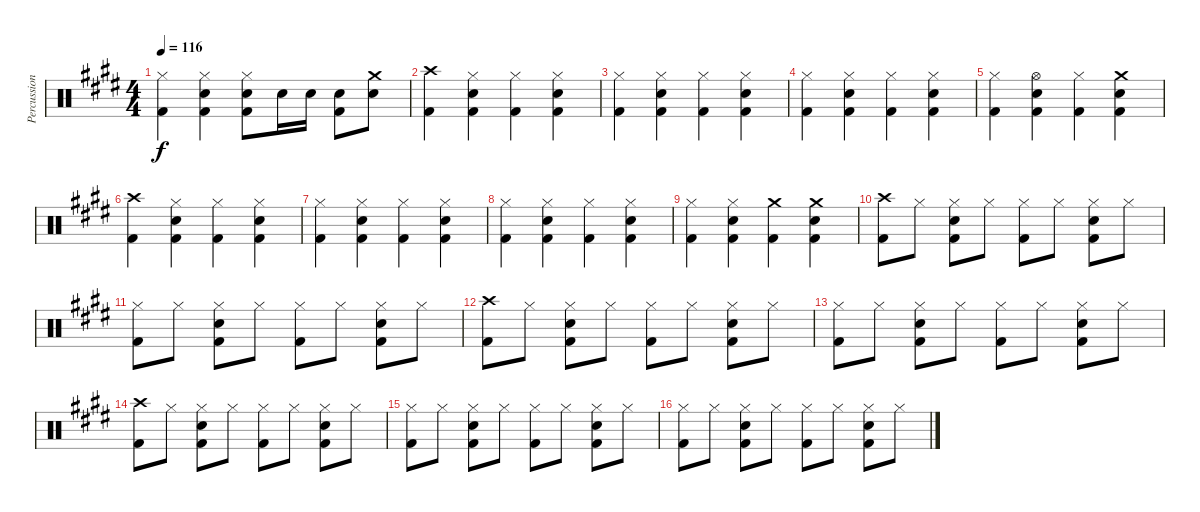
\track ("Percussion" "Percussion") {instrument percussion}
\staff {score}
\articulation defaults
\ts (4 4)
\tempo 116
\clef neutral
\ks e
("Hi-Hat (closed)" "Kick (hit) 2").4{dy f} ("Hi-Hat (closed)" "Snare (hit) 2" "Kick (hit) 2").4 ("Hi-Hat (closed)" "Snare (hit) 2" "Kick (hit) 2").8 "Snare (hit) 2".16 "Snare (hit) 2".16 ("Snare (hit) 2" "Kick (hit) 2").8 ("Crash medium (hit)" "Snare (hit) 2").8 |
("Crash high (hit)" "Kick (hit) 2").4 ("Hi-Hat (closed)" "Snare (hit) 2" "Kick (hit) 2").4 ("Hi-Hat (closed)" "Kick (hit) 2").4 ("Hi-Hat (closed)" "Snare (hit) 2" "Kick (hit) 2").4 |
("Hi-Hat (closed)" "Kick (hit) 2").4 ("Hi-Hat (closed)" "Snare (hit) 2" "Kick (hit) 2").4 ("Hi-Hat (closed)" "Kick (hit) 2").4 ("Hi-Hat (closed)" "Snare (hit) 2" "Kick (hit) 2").4 |
("Hi-Hat (closed)" "Kick (hit) 2").4 ("Hi-Hat (closed)" "Snare (hit) 2" "Kick (hit) 2").4 ("Hi-Hat (closed)" "Kick (hit) 2").4 ("Hi-Hat (closed)" "Snare (hit) 2" "Kick (hit) 2").4 |
("Hi-Hat (closed)" "Kick (hit) 2").4 ("Hi-Hat (open)" "Snare (hit) 2" "Kick (hit) 2").4 ("Hi-Hat (closed)" "Kick (hit) 2").4 ("Crash medium (hit)" "Snare (hit) 2" "Kick (hit) 2").4 |
("Crash high (hit)" "Kick (hit) 2").4 ("Hi-Hat (closed)" "Snare (hit) 2" "Kick (hit) 2").4 ("Hi-Hat (closed)" "Kick (hit) 2").4 ("Hi-Hat (closed)" "Snare (hit) 2" "Kick (hit) 2").4 |
("Hi-Hat (closed)" "Kick (hit) 2").4 ("Hi-Hat (closed)" "Snare (hit) 2" "Kick (hit) 2").4 ("Hi-Hat (closed)" "Kick (hit) 2").4 ("Hi-Hat (closed)" "Snare (hit) 2" "Kick (hit) 2").4 |
("Hi-Hat (closed)" "Kick (hit) 2").4 ("Hi-Hat (closed)" "Snare (hit) 2" "Kick (hit) 2").4 ("Hi-Hat (closed)" "Kick (hit) 2").4 ("Hi-Hat (closed)" "Snare (hit) 2" "Kick (hit) 2").4 |
("Hi-Hat (closed)" "Kick (hit) 2").4 ("Hi-Hat (closed)" "Snare (hit) 2" "Kick (hit) 2").4 ("Crash medium (hit)" "Kick (hit) 2").4 ("Crash medium (hit)" "Snare (hit) 2" "Kick (hit) 2").4 |
("Crash high (hit)" "Kick (hit) 2").8 "Hi-Hat (closed)".8 ("Hi-Hat (closed)" "Snare (hit) 2" "Kick (hit) 2").8 "Hi-Hat (closed)".8 ("Hi-Hat (closed)" "Kick (hit) 2").8 "Hi-Hat (closed)".8 ("Hi-Hat (closed)" "Snare (hit) 2" "Kick (hit) 2").8 "Hi-Hat (closed)".8 |
("Hi-Hat (closed)" "Kick (hit) 2").8 "Hi-Hat (closed)".8 ("Hi-Hat (closed)" "Snare (hit) 2" "Kick (hit) 2").8 "Hi-Hat (closed)".8 ("Hi-Hat (closed)" "Kick (hit) 2").8 "Hi-Hat (closed)".8 ("Hi-Hat (closed)" "Snare (hit) 2" "Kick (hit) 2").8 "Hi-Hat (closed)".8 |
("Crash high (hit)" "Kick (hit) 2").8 "Hi-Hat (closed)".8 ("Hi-Hat (closed)" "Snare (hit) 2" "Kick (hit) 2").8 "Hi-Hat (closed)".8 ("Hi-Hat (closed)" "Kick (hit) 2").8 "Hi-Hat (closed)".8 ("Hi-Hat (closed)" "Snare (hit) 2" "Kick (hit) 2").8 "Hi-Hat (closed)".8 |
("Hi-Hat (closed)" "Kick (hit) 2").8 "Hi-Hat (closed)".8 ("Hi-Hat (closed)" "Snare (hit) 2" "Kick (hit) 2").8 "Hi-Hat (closed)".8 ("Hi-Hat (closed)" "Kick (hit) 2").8 "Hi-Hat (closed)".8 ("Hi-Hat (closed)" "Snare (hit) 2" "Kick (hit) 2").8 "Hi-Hat (closed)".8 |
("Crash high (hit)" "Kick (hit) 2").8 "Hi-Hat (closed)".8 ("Hi-Hat (closed)" "Snare (hit) 2" "Kick (hit) 2").8 "Hi-Hat (closed)".8 ("Hi-Hat (closed)" "Kick (hit) 2").8 "Hi-Hat (closed)".8 ("Hi-Hat (closed)" "Snare (hit) 2" "Kick (hit) 2").8 "Hi-Hat (closed)".8 |
("Hi-Hat (closed)" "Kick (hit) 2").8 "Hi-Hat (closed)".8 ("Hi-Hat (closed)" "Snare (hit) 2" "Kick (hit) 2").8 "Hi-Hat (closed)".8 ("Hi-Hat (closed)" "Kick (hit) 2").8 "Hi-Hat (closed)".8 ("Hi-Hat (closed)" "Snare (hit) 2" "Kick (hit) 2").8 "Hi-Hat (closed)".8 |
("Hi-Hat (closed)" "Kick (hit) 2").8 "Hi-Hat (closed)".8 ("Hi-Hat (closed)" "Snare (hit) 2" "Kick (hit) 2").8 "Hi-Hat (closed)".8 ("Hi-Hat (closed)" "Kick (hit) 2").8 "Hi-Hat (closed)".8 ("Hi-Hat (closed)" "Snare (hit) 2" "Kick (hit) 2").8 "Hi-Hat (closed)".8
